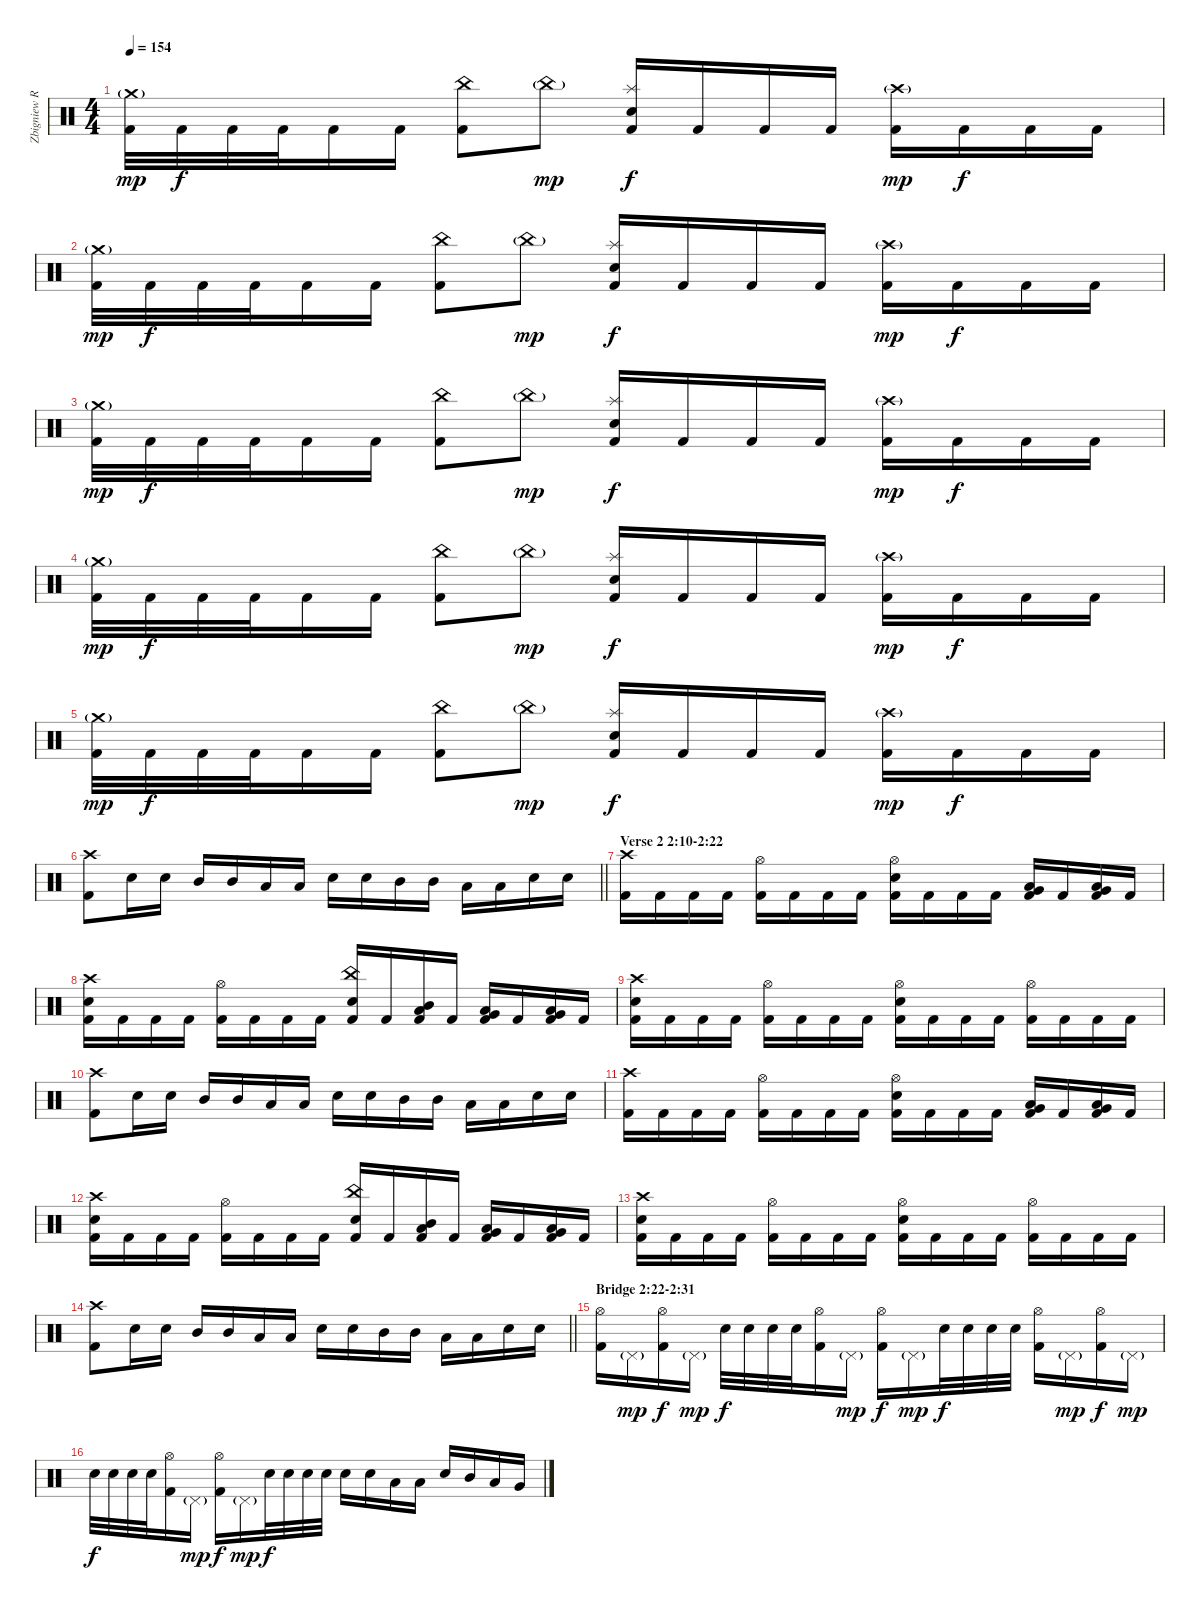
\track ("Zbigniew Robert \"Inferno\" Prominski" "Zbigniew R") {instrument percussion}
\staff {score}
\articulation defaults
\ts (4 4)
\tempo 154
\clef neutral
\ks c
("Crash medium (hit)"{g} "Kick (hit) 2").32{dy mp} "Kick (hit) 2".32{dy f} "Kick (hit) 2".32 "Kick (hit) 2".32 "Kick (hit) 2".16 "Kick (hit) 2".16 ("China (hit)" "Kick (hit) 2").8 "China (hit)"{g}.8{dy mp} ("Splash (hit)" "Snare (hit) 2" "Kick (hit) 2").16{dy f} "Kick (hit) 2".16 "Kick (hit) 2".16 "Kick (hit) 2".16 ("Crash high (hit)"{g} "Kick (hit) 2").16{dy mp} "Kick (hit) 2".16{dy f} "Kick (hit) 2".16 "Kick (hit) 2".16 |
("Crash medium (hit)"{g} "Kick (hit) 2").32{dy mp} "Kick (hit) 2".32{dy f} "Kick (hit) 2".32 "Kick (hit) 2".32 "Kick (hit) 2".16 "Kick (hit) 2".16 ("China (hit)" "Kick (hit) 2").8 "China (hit)"{g}.8{dy mp} ("Splash (hit)" "Snare (hit) 2" "Kick (hit) 2").16{dy f} "Kick (hit) 2".16 "Kick (hit) 2".16 "Kick (hit) 2".16 ("Crash high (hit)"{g} "Kick (hit) 2").16{dy mp} "Kick (hit) 2".16{dy f} "Kick (hit) 2".16 "Kick (hit) 2".16 |
("Crash medium (hit)"{g} "Kick (hit) 2").32{dy mp} "Kick (hit) 2".32{dy f} "Kick (hit) 2".32 "Kick (hit) 2".32 "Kick (hit) 2".16 "Kick (hit) 2".16 ("China (hit)" "Kick (hit) 2").8 "China (hit)"{g}.8{dy mp} ("Splash (hit)" "Snare (hit) 2" "Kick (hit) 2").16{dy f} "Kick (hit) 2".16 "Kick (hit) 2".16 "Kick (hit) 2".16 ("Crash high (hit)"{g} "Kick (hit) 2").16{dy mp} "Kick (hit) 2".16{dy f} "Kick (hit) 2".16 "Kick (hit) 2".16 |
("Crash medium (hit)"{g} "Kick (hit) 2").32{dy mp} "Kick (hit) 2".32{dy f} "Kick (hit) 2".32 "Kick (hit) 2".32 "Kick (hit) 2".16 "Kick (hit) 2".16 ("China (hit)" "Kick (hit) 2").8 "China (hit)"{g}.8{dy mp} ("Splash (hit)" "Snare (hit) 2" "Kick (hit) 2").16{dy f} "Kick (hit) 2".16 "Kick (hit) 2".16 "Kick (hit) 2".16 ("Crash high (hit)"{g} "Kick (hit) 2").16{dy mp} "Kick (hit) 2".16{dy f} "Kick (hit) 2".16 "Kick (hit) 2".16 |
("Crash medium (hit)"{g} "Kick (hit) 2").32{dy mp} "Kick (hit) 2".32{dy f} "Kick (hit) 2".32 "Kick (hit) 2".32 "Kick (hit) 2".16 "Kick (hit) 2".16 ("China (hit)" "Kick (hit) 2").8 "China (hit)"{g}.8{dy mp} ("Splash (hit)" "Snare (hit) 2" "Kick (hit) 2").16{dy f} "Kick (hit) 2".16 "Kick (hit) 2".16 "Kick (hit) 2".16 ("Crash high (hit)"{g} "Kick (hit) 2").16{dy mp} "Kick (hit) 2".16{dy f} "Kick (hit) 2".16 "Kick (hit) 2".16 |
\barLineRight lightlight
("Crash high (hit)" "Kick (hit) 2").8 "Snare (hit) 2".16 "Snare (hit) 2".16 "Mid Tom (hit)".16 "Mid Tom (hit)".16 "Low Tom (hit)".16 "Low Tom (hit)".16 "Snare (hit) 2".16 "Snare (hit) 2".16 "Mid Tom (hit)".16 "Mid Tom (hit)".16 "Low Tom (hit)".16 "Low Tom (hit)".16 "Snare (hit) 2".16 "Snare (hit) 2".16 |
\section ("" "Verse 2 2:10-2:22")
("Crash high (hit)" "Kick (hit) 2").16 "Kick (hit) 2".16 "Kick (hit) 2".16 "Kick (hit) 2".16 ("Hi-Hat (open)" "Kick (hit) 2").16 "Kick (hit) 2".16 "Kick (hit) 2".16 "Kick (hit) 2".16 ("Hi-Hat (open)" "Snare (hit) 2" "Kick (hit) 2").16 "Kick (hit) 2".16 "Kick (hit) 2".16 "Kick (hit) 2".16 ("Low Floor Tom (hit)" "Very Low Tom (hit)" "Kick (hit) 2").16 "Kick (hit) 2".16 ("Low Floor Tom (hit)" "Very Low Tom (hit)" "Kick (hit) 2").16 "Kick (hit) 2".16 |
("Snare (hit) 2" "Crash high (hit)" "Kick (hit) 2").16 "Kick (hit) 2".16 "Kick (hit) 2".16 "Kick (hit) 2".16 ("Hi-Hat (open)" "Kick (hit) 2").16 "Kick (hit) 2".16 "Kick (hit) 2".16 "Kick (hit) 2".16 ("China (hit)" "Snare (hit) 2" "Kick (hit) 2").16 "Kick (hit) 2".16 ("Low Tom (hit)" "Mid Tom (hit)" "Kick (hit) 2").16 "Kick (hit) 2".16 ("Low Tom (hit)" "Very Low Tom (hit)" "Kick (hit) 2").16 "Kick (hit) 2".16 ("Low Floor Tom (hit)" "Very Low Tom (hit)" "Kick (hit) 2").16 "Kick (hit) 2".16 |
("Snare (hit) 2" "Crash high (hit)" "Kick (hit) 2").16 "Kick (hit) 2".16 "Kick (hit) 2".16 "Kick (hit) 2".16 ("Hi-Hat (open)" "Kick (hit) 2").16 "Kick (hit) 2".16 "Kick (hit) 2".16 "Kick (hit) 2".16 ("Hi-Hat (open)" "Snare (hit) 2" "Kick (hit) 2").16 "Kick (hit) 2".16 "Kick (hit) 2".16 "Kick (hit) 2".16 ("Hi-Hat (open)" "Kick (hit) 2").16 "Kick (hit) 2".16 "Kick (hit) 2".16 "Kick (hit) 2".16 |
("Crash high (hit)" "Kick (hit) 2").8 "Snare (hit) 2".16 "Snare (hit) 2".16 "Mid Tom (hit)".16 "Mid Tom (hit)".16 "Low Tom (hit)".16 "Low Tom (hit)".16 "Snare (hit) 2".16 "Snare (hit) 2".16 "Mid Tom (hit)".16 "Mid Tom (hit)".16 "Low Tom (hit)".16 "Low Tom (hit)".16 "Snare (hit) 2".16 "Snare (hit) 2".16 |
("Crash high (hit)" "Kick (hit) 2").16 "Kick (hit) 2".16 "Kick (hit) 2".16 "Kick (hit) 2".16 ("Hi-Hat (open)" "Kick (hit) 2").16 "Kick (hit) 2".16 "Kick (hit) 2".16 "Kick (hit) 2".16 ("Hi-Hat (open)" "Snare (hit) 2" "Kick (hit) 2").16 "Kick (hit) 2".16 "Kick (hit) 2".16 "Kick (hit) 2".16 ("Low Floor Tom (hit)" "Very Low Tom (hit)" "Kick (hit) 2").16 "Kick (hit) 2".16 ("Low Floor Tom (hit)" "Very Low Tom (hit)" "Kick (hit) 2").16 "Kick (hit) 2".16 |
("Snare (hit) 2" "Crash high (hit)" "Kick (hit) 2").16 "Kick (hit) 2".16 "Kick (hit) 2".16 "Kick (hit) 2".16 ("Hi-Hat (open)" "Kick (hit) 2").16 "Kick (hit) 2".16 "Kick (hit) 2".16 "Kick (hit) 2".16 ("China (hit)" "Snare (hit) 2" "Kick (hit) 2").16 "Kick (hit) 2".16 ("Low Tom (hit)" "Mid Tom (hit)" "Kick (hit) 2").16 "Kick (hit) 2".16 ("Low Tom (hit)" "Very Low Tom (hit)" "Kick (hit) 2").16 "Kick (hit) 2".16 ("Low Floor Tom (hit)" "Very Low Tom (hit)" "Kick (hit) 2").16 "Kick (hit) 2".16 |
("Snare (hit) 2" "Crash high (hit)" "Kick (hit) 2").16 "Kick (hit) 2".16 "Kick (hit) 2".16 "Kick (hit) 2".16 ("Hi-Hat (open)" "Kick (hit) 2").16 "Kick (hit) 2".16 "Kick (hit) 2".16 "Kick (hit) 2".16 ("Hi-Hat (open)" "Snare (hit) 2" "Kick (hit) 2").16 "Kick (hit) 2".16 "Kick (hit) 2".16 "Kick (hit) 2".16 ("Hi-Hat (open)" "Kick (hit) 2").16 "Kick (hit) 2".16 "Kick (hit) 2".16 "Kick (hit) 2".16 |
\barLineRight lightlight
("Crash high (hit)" "Kick (hit) 2").8 "Snare (hit) 2".16 "Snare (hit) 2".16 "Mid Tom (hit)".16 "Mid Tom (hit)".16 "Low Tom (hit)".16 "Low Tom (hit)".16 "Snare (hit) 2".16 "Snare (hit) 2".16 "Mid Tom (hit)".16 "Mid Tom (hit)".16 "Low Tom (hit)".16 "Low Tom (hit)".16 "Snare (hit) 2".16 "Snare (hit) 2".16 |
\section ("" "Bridge 2:22-2:31")
("Hi-Hat (open)" "Kick (hit) 2").16 "Pedal Hi-Hat (hit)"{g}.16{dy mp} ("Hi-Hat (open)" "Kick (hit) 2").16{dy f} "Pedal Hi-Hat (hit)"{g}.16{dy mp} "Snare (hit) 2".32{dy f} "Snare (hit) 2".32 "Snare (hit) 2".32 "Snare (hit) 2".32 ("Hi-Hat (open)" "Kick (hit) 2").16 "Pedal Hi-Hat (hit)"{g}.16{dy mp} ("Hi-Hat (open)" "Kick (hit) 2").16{dy f} "Pedal Hi-Hat (hit)"{g}.16{dy mp} "Snare (hit) 2".32{dy f} "Snare (hit) 2".32 "Snare (hit) 2".32 "Snare (hit) 2".32 ("Hi-Hat (open)" "Kick (hit) 2").16 "Pedal Hi-Hat (hit)"{g}.16{dy mp} ("Hi-Hat (open)" "Kick (hit) 2").16{dy f} "Pedal Hi-Hat (hit)"{g}.16{dy mp} |
"Snare (hit) 2".32{dy f} "Snare (hit) 2".32 "Snare (hit) 2".32 "Snare (hit) 2".32 ("Hi-Hat (open)" "Kick (hit) 2").16 "Pedal Hi-Hat (hit)"{g}.16{dy mp} ("Hi-Hat (open)" "Kick (hit) 2").16{dy f} "Pedal Hi-Hat (hit)"{g}.16{dy mp} "Snare (hit) 2".32{dy f} "Snare (hit) 2".32 "Snare (hit) 2".32 "Snare (hit) 2".32 "Snare (hit) 2".16 "Snare (hit) 2".16 "Low Tom (hit)".16 "Low Tom (hit)".16 "Snare (hit) 2".16 "Mid Tom (hit)".16 "Low Tom (hit)".16 "Very Low Tom (hit)".16
